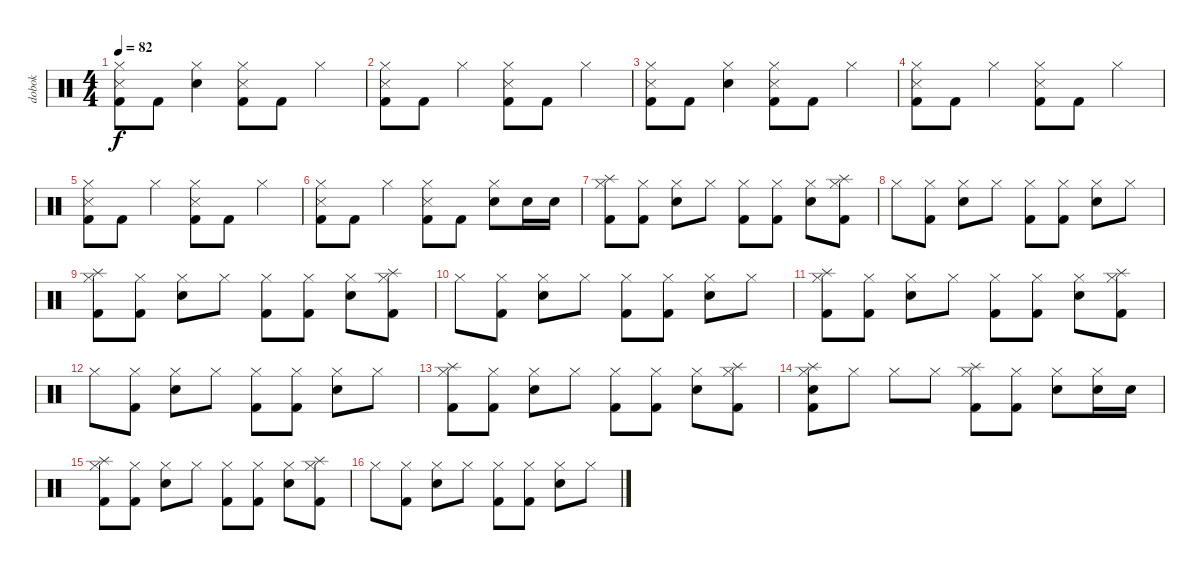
\track ("dobok" "dobok") {instrument percussion}
\staff {score}
\articulation defaults
\ts (4 4)
\tempo 82
\clef neutral
\ks c
("Hi-Hat (closed)" "Snare (side stick) 3" "Kick (hit) 2").8{dy f} "Kick (hit) 2".8 ("Hi-Hat (closed)" "Snare (hit) 2").4 ("Hi-Hat (closed)" "Snare (side stick) 3" "Kick (hit) 2").8 "Kick (hit) 2".8 "Hi-Hat (closed)".4 |
("Hi-Hat (closed)" "Snare (side stick) 3" "Kick (hit) 2").8 "Kick (hit) 2".8 "Hi-Hat (closed)".4 ("Hi-Hat (closed)" "Snare (side stick) 3" "Kick (hit) 2").8 "Kick (hit) 2".8 "Hi-Hat (closed)".4 |
("Hi-Hat (closed)" "Snare (side stick) 3" "Kick (hit) 2").8 "Kick (hit) 2".8 ("Hi-Hat (closed)" "Snare (hit) 2").4 ("Hi-Hat (closed)" "Snare (side stick) 3" "Kick (hit) 2").8 "Kick (hit) 2".8 "Hi-Hat (closed)".4 |
("Hi-Hat (closed)" "Snare (side stick) 3" "Kick (hit) 2").8 "Kick (hit) 2".8 "Hi-Hat (closed)".4 ("Hi-Hat (closed)" "Snare (side stick) 3" "Kick (hit) 2").8 "Kick (hit) 2".8 "Hi-Hat (closed)".4 |
("Hi-Hat (closed)" "Snare (side stick) 3" "Kick (hit) 2").8 "Kick (hit) 2".8 "Hi-Hat (closed)".4 ("Hi-Hat (closed)" "Snare (side stick) 3" "Kick (hit) 2").8 "Kick (hit) 2".8 "Hi-Hat (closed)".4 |
("Hi-Hat (closed)" "Snare (side stick) 3" "Kick (hit) 2").8 "Kick (hit) 2".8 "Hi-Hat (closed)".4 ("Hi-Hat (closed)" "Snare (side stick) 3" "Kick (hit) 2").8 "Kick (hit) 2".8 ("Hi-Hat (closed)" "Snare (hit) 2").8 "Snare (hit) 2".16 "Snare (hit) 2".16 |
("Splash (hit)" "Hi-Hat (closed)" "Kick (hit) 2").8 ("Hi-Hat (closed)" "Kick (hit) 2").8 ("Hi-Hat (closed)" "Snare (hit) 2").8 "Hi-Hat (closed)".8 ("Hi-Hat (closed)" "Kick (hit) 2").8 ("Hi-Hat (closed)" "Kick (hit) 2").8 ("Hi-Hat (closed)" "Snare (hit) 2").8 ("Splash (hit)" "Hi-Hat (closed)" "Kick (hit) 2").8 |
"Hi-Hat (closed)".8 ("Hi-Hat (closed)" "Kick (hit) 2").8 ("Hi-Hat (closed)" "Snare (hit) 2").8 "Hi-Hat (closed)".8 ("Hi-Hat (closed)" "Kick (hit) 2").8 ("Hi-Hat (closed)" "Kick (hit) 2").8 ("Hi-Hat (closed)" "Snare (hit) 2").8 "Hi-Hat (closed)".8 |
("Splash (hit)" "Hi-Hat (closed)" "Kick (hit) 2").8 ("Hi-Hat (closed)" "Kick (hit) 2").8 ("Hi-Hat (closed)" "Snare (hit) 2").8 "Hi-Hat (closed)".8 ("Hi-Hat (closed)" "Kick (hit) 2").8 ("Hi-Hat (closed)" "Kick (hit) 2").8 ("Hi-Hat (closed)" "Snare (hit) 2").8 ("Splash (hit)" "Hi-Hat (closed)" "Kick (hit) 2").8 |
"Hi-Hat (closed)".8 ("Hi-Hat (closed)" "Kick (hit) 2").8 ("Hi-Hat (closed)" "Snare (hit) 2").8 "Hi-Hat (closed)".8 ("Hi-Hat (closed)" "Kick (hit) 2").8 ("Hi-Hat (closed)" "Kick (hit) 2").8 ("Hi-Hat (closed)" "Snare (hit) 2").8 "Hi-Hat (closed)".8 |
("Splash (hit)" "Hi-Hat (closed)" "Kick (hit) 2").8 ("Hi-Hat (closed)" "Kick (hit) 2").8 ("Hi-Hat (closed)" "Snare (hit) 2").8 "Hi-Hat (closed)".8 ("Hi-Hat (closed)" "Kick (hit) 2").8 ("Hi-Hat (closed)" "Kick (hit) 2").8 ("Hi-Hat (closed)" "Snare (hit) 2").8 ("Splash (hit)" "Hi-Hat (closed)" "Kick (hit) 2").8 |
"Hi-Hat (closed)".8 ("Hi-Hat (closed)" "Kick (hit) 2").8 ("Hi-Hat (closed)" "Snare (hit) 2").8 "Hi-Hat (closed)".8 ("Hi-Hat (closed)" "Kick (hit) 2").8 ("Hi-Hat (closed)" "Kick (hit) 2").8 ("Hi-Hat (closed)" "Snare (hit) 2").8 "Hi-Hat (closed)".8 |
("Splash (hit)" "Hi-Hat (closed)" "Kick (hit) 2").8 ("Hi-Hat (closed)" "Kick (hit) 2").8 ("Hi-Hat (closed)" "Snare (hit) 2").8 "Hi-Hat (closed)".8 ("Hi-Hat (closed)" "Kick (hit) 2").8 ("Hi-Hat (closed)" "Kick (hit) 2").8 ("Hi-Hat (closed)" "Snare (hit) 2").8 ("Splash (hit)" "Hi-Hat (closed)" "Kick (hit) 2").8 |
("Splash (hit)" "Hi-Hat (closed)" "Snare (hit) 2" "Kick (hit) 2").8 "Hi-Hat (closed)".8 "Hi-Hat (closed)".8 "Hi-Hat (closed)".8 ("Splash (hit)" "Hi-Hat (closed)" "Kick (hit) 2").8 ("Hi-Hat (closed)" "Kick (hit) 2").8 ("Hi-Hat (closed)" "Snare (hit) 2").8 ("Hi-Hat (closed)" "Snare (hit) 2").16 "Snare (hit) 2".16 |
("Splash (hit)" "Hi-Hat (closed)" "Kick (hit) 2").8 ("Hi-Hat (closed)" "Kick (hit) 2").8 ("Hi-Hat (closed)" "Snare (hit) 2").8 "Hi-Hat (closed)".8 ("Hi-Hat (closed)" "Kick (hit) 2").8 ("Hi-Hat (closed)" "Kick (hit) 2").8 ("Hi-Hat (closed)" "Snare (hit) 2").8 ("Splash (hit)" "Hi-Hat (closed)" "Kick (hit) 2").8 |
"Hi-Hat (closed)".8 ("Hi-Hat (closed)" "Kick (hit) 2").8 ("Hi-Hat (closed)" "Snare (hit) 2").8 "Hi-Hat (closed)".8 ("Hi-Hat (closed)" "Kick (hit) 2").8 ("Hi-Hat (closed)" "Kick (hit) 2").8 ("Hi-Hat (closed)" "Snare (hit) 2").8 "Hi-Hat (closed)".8
